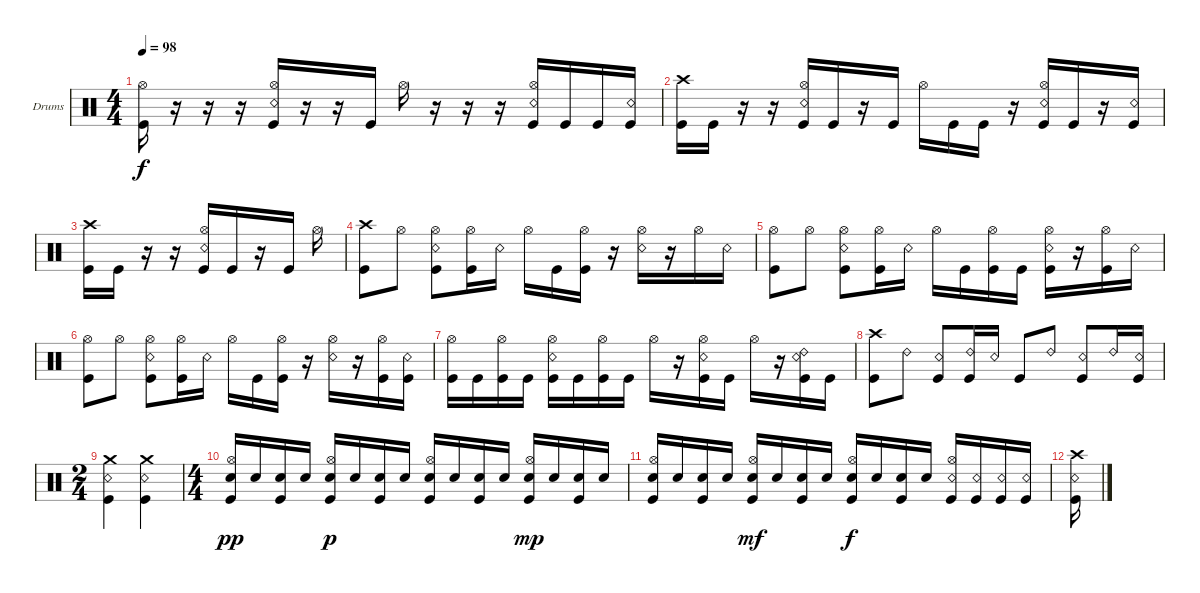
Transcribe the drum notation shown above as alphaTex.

\bracketExtendMode groupsimilarinstruments
\firstSystemTrackNameOrientation horizontal
\otherSystemsTrackNameOrientation horizontal
\track ("Drumkit" "Drums") {instrument percussion}
\staff {score}
\articulation defaults
\ts (4 4)
\tempo 98
\clef neutral
\ks c
("Kick (hit)" "Hi-Hat (open)").16{dy f} r.16 r.16 r.16 ("Kick (hit)" "Hi-Hat (open)" "Snare (rim shot)").16 r.16 r.16 "Kick (hit)".16 "Hi-Hat (open)".16 r.16 r.16 r.16 ("Kick (hit)" "Hi-Hat (open)" "Snare (rim shot)").16 "Kick (hit)".16 "Kick (hit)".16 ("Kick (hit)" "Snare (rim shot)").16 |
("Kick (hit)" "Crash high (hit)").16 "Kick (hit)".16 r.16 r.16 ("Kick (hit)" "Hi-Hat (open)" "Snare (rim shot)").16 "Kick (hit)".16 r.16 "Kick (hit)".16 "Hi-Hat (open)".16 "Kick (hit)".16 "Kick (hit)".16 r.16 ("Kick (hit)" "Hi-Hat (open)" "Snare (rim shot)").16 "Kick (hit)".16 r.16 ("Kick (hit)" "Snare (rim shot)").16 |
("Kick (hit)" "Crash high (hit)").16 "Kick (hit)".16 r.16 r.16 ("Kick (hit)" "Hi-Hat (open)" "Snare (rim shot)").16 "Kick (hit)".16 r.16 "Kick (hit)".16 "Hi-Hat (open)".16 |
("Kick (hit)" "Crash high (hit)").8 "Hi-Hat (open)".8 ("Kick (hit)" "Hi-Hat (open)" "Snare (rim shot)").8 ("Kick (hit)" "Hi-Hat (open)").16 "Snare (rim shot)".16 "Hi-Hat (open)".16 "Kick (hit)".16 ("Kick (hit)" "Hi-Hat (open)").16 r.16 ("Snare (rim shot)" "Hi-Hat (open)").16 r.16 "Hi-Hat (open)".16 "Snare (rim shot)".16 |
("Kick (hit)" "Hi-Hat (open)").8 "Hi-Hat (open)".8 ("Kick (hit)" "Hi-Hat (open)" "Snare (rim shot)").8 ("Kick (hit)" "Hi-Hat (open)").16 "Snare (rim shot)".16 "Hi-Hat (open)".16 "Kick (hit)".16 ("Kick (hit)" "Hi-Hat (open)").16 "Kick (hit)".16 ("Snare (rim shot)" "Hi-Hat (open)" "Kick (hit)").16 r.16 ("Hi-Hat (open)" "Kick (hit)").16 "Snare (rim shot)".16 |
("Kick (hit)" "Hi-Hat (open)").8 "Hi-Hat (open)".8 ("Kick (hit)" "Hi-Hat (open)" "Snare (rim shot)").8 ("Kick (hit)" "Hi-Hat (open)").16 "Snare (rim shot)".16 "Hi-Hat (open)".16 "Kick (hit)".16 ("Kick (hit)" "Hi-Hat (open)").16 r.16 ("Snare (rim shot)" "Hi-Hat (open)").16 r.16 ("Hi-Hat (open)" "Kick (hit)").16 ("Snare (rim shot)" "Kick (hit)").16 |
("Kick (hit)" "Hi-Hat (open)").16 "Kick (hit)".16 ("Kick (hit)" "Hi-Hat (open)").16 "Kick (hit)".16 ("Kick (hit)" "Hi-Hat (open)" "Snare (rim shot)").16 "Kick (hit)".16 ("Kick (hit)" "Hi-Hat (open)").16 "Kick (hit)".16 "Hi-Hat (open)".16 r.16 ("Kick (hit)" "Hi-Hat (open)" "Snare (rim shot)").16 "Kick (hit)".16 "Hi-Hat (open)".16 r.16 ("Kick (hit)" "Snare (rim shot)" "Ride (bell) 2").16 "Kick (hit)".16 |
("Kick (hit)" "Crash high (hit)").8 "Ride (bell) 2".8 ("Snare (rim shot)" "Kick (hit)").8 ("Ride (bell) 2" "Kick (hit)").16 "Snare (rim shot)".16 "Kick (hit)".8 "Ride (bell) 2".8 ("Snare (rim shot)" "Kick (hit)").8 "Ride (bell) 2".16 ("Snare (rim shot)" "Kick (hit)").16 |
\ts (2 4)
("Snare (rim shot)" "Crash medium (hit)" "Kick (hit)").4 ("Crash medium (hit)" "Snare (rim shot)" "Kick (hit)").4 |
\ts (4 4)
("Snare (hit) 2" "Hi-Hat (open)" "Kick (hit)").16{dy pp} "Snare (hit) 2".16 ("Snare (hit) 2" "Kick (hit)").16 "Snare (hit) 2".16 ("Snare (hit) 2" "Hi-Hat (open)" "Kick (hit)").16{dy p} "Snare (hit) 2".16 ("Snare (hit) 2" "Kick (hit)").16 "Snare (hit) 2".16 ("Snare (hit) 2" "Hi-Hat (open)" "Kick (hit)").16 "Snare (hit) 2".16 ("Snare (hit) 2" "Kick (hit)").16 "Snare (hit) 2".16 ("Snare (hit) 2" "Hi-Hat (open)" "Kick (hit)").16{dy mp} "Snare (hit) 2".16 ("Snare (hit) 2" "Kick (hit)").16 "Snare (hit) 2".16 |
("Snare (hit) 2" "Hi-Hat (open)" "Kick (hit)").16 "Snare (hit) 2".16 ("Snare (hit) 2" "Kick (hit)").16 "Snare (hit) 2".16 ("Snare (hit) 2" "Hi-Hat (open)" "Kick (hit)").16{dy mf} "Snare (hit) 2".16 ("Snare (hit) 2" "Kick (hit)").16 "Snare (hit) 2".16 ("Snare (hit) 2" "Hi-Hat (open)" "Kick (hit)").16{dy f} "Snare (hit) 2".16 ("Snare (hit) 2" "Kick (hit)").16 "Snare (hit) 2".16 ("Snare (rim shot)" "Hi-Hat (open)" "Kick (hit)").16 ("Snare (rim shot)" "Kick (hit)").16 ("Snare (rim shot)" "Kick (hit)").16 ("Snare (rim shot)" "Kick (hit)").16 |
("Crash high (hit)" "Kick (hit)" "Snare (rim shot)").16
